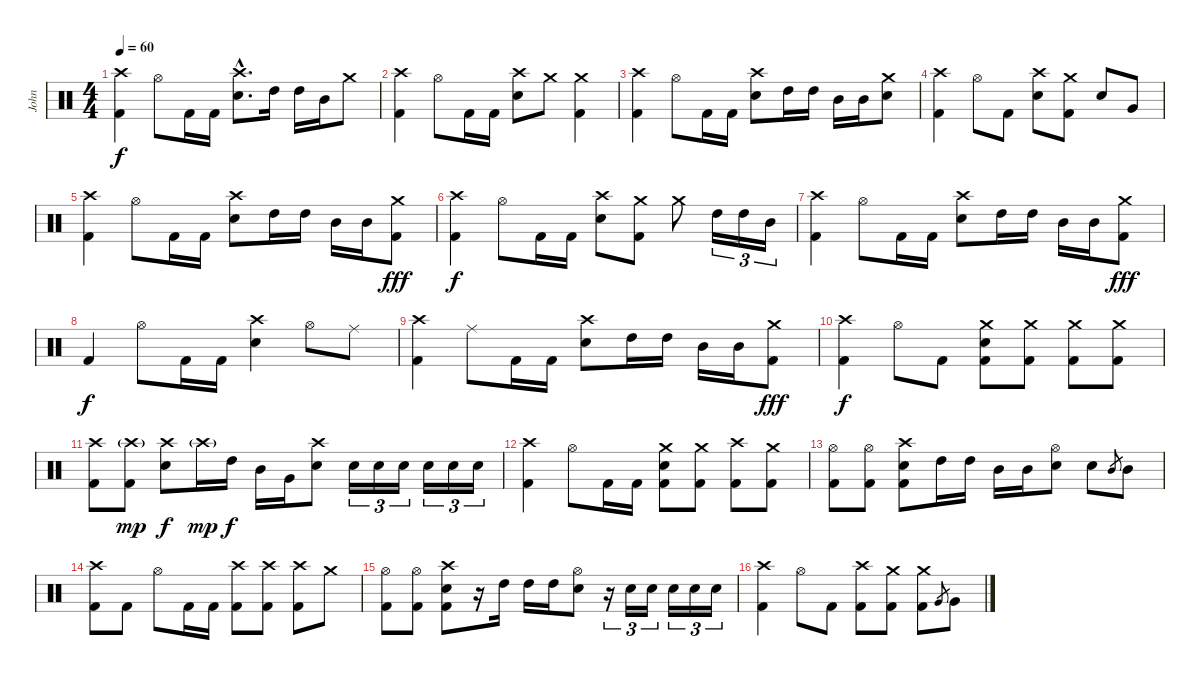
\track ("John" "John") {instrument percussion}
\staff {score}
\articulation defaults
\ts (4 4)
\tempo 60
\clef neutral
\ks c
("Crash high (hit)" "Kick (hit) 2").4{dy f} "Hi-Hat (open)".8 "Kick (hit) 2".16 "Kick (hit) 2".16 ("Crash high (hit)"{hac} "Snare (hit) 2"{hac}).8{d} "High Tom (hit)".16 "High Tom (hit)".16 "Mid Tom (hit)".16 "Crash medium (hit)".8 |
("Crash high (hit)" "Kick (hit) 2").4 "Hi-Hat (open)".8 "Kick (hit) 2".16 "Kick (hit) 2".16 ("Crash high (hit)" "Snare (hit) 2").8 "Crash medium (hit)".8 ("Crash medium (hit)" "Kick (hit) 2").4 |
("Crash high (hit)" "Kick (hit) 2").4 "Hi-Hat (open)".8 "Kick (hit) 2".16 "Kick (hit) 2".16 ("Crash high (hit)" "Snare (hit) 2").8 "High Tom (hit)".16 "High Tom (hit)".16 "Mid Tom (hit)".16 "Mid Tom (hit)".16 ("Crash medium (hit)" "Snare (hit) 2").8 |
("Crash high (hit)" "Kick (hit) 2").4 "Hi-Hat (open)".8 "Kick (hit) 2".8 ("Crash high (hit)" "Snare (hit) 2").8 ("Crash medium (hit)" "Kick (hit) 2").8 "Snare (hit) 2".8 "Very Low Tom (hit)".8 |
("Crash high (hit)" "Kick (hit) 2").4 "Hi-Hat (open)".8 "Kick (hit) 2".16 "Kick (hit) 2".16 ("Crash high (hit)" "Snare (hit) 2").8 "High Tom (hit)".16 "High Tom (hit)".16 "Mid Tom (hit)".16 "Mid Tom (hit)".16 ("Crash medium (hit)" "Kick (hit) 2").8{dy fff} |
("Crash high (hit)" "Kick (hit) 2").4{dy f} "Hi-Hat (open)".8 "Kick (hit) 2".16 "Kick (hit) 2".16 ("Crash high (hit)" "Snare (hit) 2").8 ("Crash medium (hit)" "Kick (hit) 2").8 "Crash medium (hit)".8 "High Tom (hit)".16{tu (3 2)} "High Tom (hit)".16{tu (3 2)} "Mid Tom (hit)".16{tu (3 2)} |
("Crash high (hit)" "Kick (hit) 2").4 "Hi-Hat (open)".8 "Kick (hit) 2".16 "Kick (hit) 2".16 ("Crash high (hit)" "Snare (hit) 2").8 "High Tom (hit)".16 "High Tom (hit)".16 "Mid Tom (hit)".16 "Mid Tom (hit)".16 ("Crash medium (hit)" "Kick (hit) 2").8{dy fff} |
"Kick (hit) 2".4{dy f} "Hi-Hat (open)".8 "Kick (hit) 2".16 "Kick (hit) 2".16 ("Crash high (hit)" "Snare (hit) 2").4 "Hi-Hat (open)".8 "Ride (middle)".8 |
("Crash high (hit)" "Kick (hit) 2").4 "Ride (middle)".8 "Kick (hit) 2".16 "Kick (hit) 2".16 ("Crash high (hit)" "Snare (hit) 2").8 "High Tom (hit)".16 "High Tom (hit)".16 "Mid Tom (hit)".16 "Mid Tom (hit)".16 ("Crash medium (hit)" "Kick (hit) 2").8{dy fff} |
("Crash high (hit)" "Kick (hit) 2").4{dy f} "Hi-Hat (open)".8 "Kick (hit) 2".8 ("Crash medium (hit)" "Snare (hit) 2" "Kick (hit) 2").8 ("Crash medium (hit)" "Kick (hit) 2").8 ("Crash medium (hit)" "Kick (hit) 2").8 ("Crash medium (hit)" "Kick (hit) 2").8 |
("Crash high (hit)" "Kick (hit) 2").8 ("Crash high (hit)"{g} "Kick (hit) 2").8{dy mp} ("Crash high (hit)" "Snare (hit) 2").8{dy f} "Crash high (hit)"{g}.16{dy mp} "High Tom (hit)".16{dy f} "Mid Tom (hit)".16 "Very Low Tom (hit)".16 ("Crash high (hit)" "Snare (hit) 2").8 "Snare (hit) 2".16{tu (3 2)} "Snare (hit) 2".16{tu (3 2)} "Snare (hit) 2".16{tu (3 2)} "Snare (hit) 2".16{tu (3 2)} "Snare (hit) 2".16{tu (3 2)} "Snare (hit) 2".16{tu (3 2)} |
("Crash high (hit)" "Kick (hit) 2").4 "Hi-Hat (open)".8 "Kick (hit) 2".16 "Kick (hit) 2".16 ("Crash medium (hit)" "Snare (hit) 2" "Kick (hit) 2").8 ("Crash medium (hit)" "Kick (hit) 2").8 ("Crash high (hit)" "Kick (hit) 2").8 ("Crash medium (hit)" "Kick (hit) 2").8 |
("Hi-Hat (open)" "Kick (hit) 2").8 ("Hi-Hat (open)" "Kick (hit) 2").8 ("Crash high (hit)" "Snare (hit) 2" "Kick (hit) 2").8 "High Tom (hit)".16 "High Tom (hit)".16 "Mid Tom (hit)".16 "Mid Tom (hit)".16 ("Hi-Hat (open)" "Snare (hit) 2").8 "Snare (hit) 2".8 "Mid Tom (hit)".8{gr} "Mid Tom (hit)".8 |
("Crash high (hit)" "Kick (hit) 2").8 "Kick (hit) 2".8 "Hi-Hat (open)".8 "Kick (hit) 2".16 "Kick (hit) 2".16 ("Crash high (hit)" "Kick (hit) 2").8 ("Crash high (hit)" "Kick (hit) 2").8 ("Crash high (hit)" "Kick (hit) 2").8 "Crash medium (hit)".8 |
("Hi-Hat (open)" "Kick (hit) 2").8 ("Hi-Hat (open)" "Kick (hit) 2").8 ("Crash high (hit)" "Snare (hit) 2" "Kick (hit) 2").8 r.16 "High Tom (hit)".16 "High Tom (hit)".16 "High Tom (hit)".16 ("Hi-Hat (open)" "Snare (hit) 2").8 r.16{tu (3 2)} "Snare (hit) 2".16{tu (3 2)} "Snare (hit) 2".16{tu (3 2)} "Snare (hit) 2".16{tu (3 2)} "Snare (hit) 2".16{tu (3 2)} "Snare (hit) 2".16{tu (3 2)} |
("Crash high (hit)" "Kick (hit) 2").4 "Hi-Hat (open)".8 "Kick (hit) 2".8 ("Crash high (hit)" "Kick (hit) 2").8 ("Crash medium (hit)" "Kick (hit) 2").8 ("Crash medium (hit)" "Kick (hit) 2").8 "Very Low Tom (hit)".8{gr} "Very Low Tom (hit)".8
